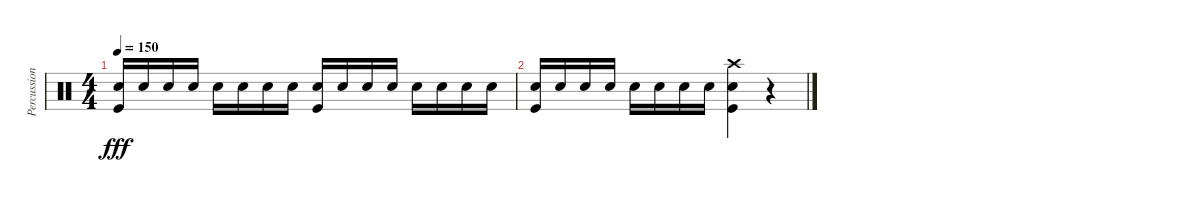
\track ("Percussions" "Percussion") {instrument percussion}
\staff {score}
\articulation defaults
\ts (4 4)
\tempo 150
\clef neutral
\ks c
("Snare (hit) 2" "Kick (hit)").16{dy fff} "Snare (hit) 2".16 "Snare (hit) 2".16 "Snare (hit) 2".16 "Snare (hit) 2".16 "Snare (hit) 2".16 "Snare (hit) 2".16 "Snare (hit) 2".16 ("Snare (hit) 2" "Kick (hit)").16 "Snare (hit) 2".16 "Snare (hit) 2".16 "Snare (hit) 2".16 "Snare (hit) 2".16 "Snare (hit) 2".16 "Snare (hit) 2".16 "Snare (hit) 2".16 |
("Snare (hit) 2" "Kick (hit)").16 "Snare (hit) 2".16 "Snare (hit) 2".16 "Snare (hit) 2".16 "Snare (hit) 2".16 "Snare (hit) 2".16 "Snare (hit) 2".16 "Snare (hit) 2".16 ("Crash high (hit)" "Snare (hit) 2" "Kick (hit)").4 r.4
